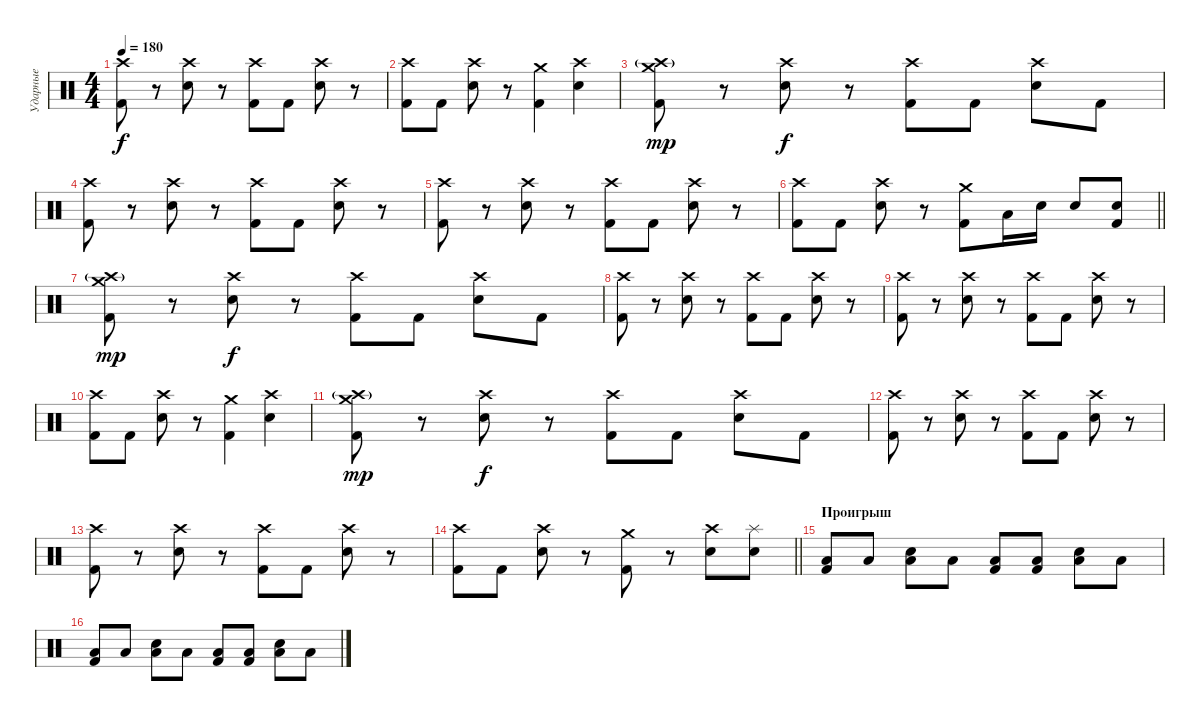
\track ("Ударные" "Ударные") {instrument percussion}
\staff {score}
\articulation defaults
\ts (4 4)
\tempo 180
\clef neutral
\ks c
("Crash high (hit)" "Kick (hit) 2").8{dy f} r.8 ("Crash high (hit)" "Snare (hit) 2").8 r.8 ("Crash high (hit)" "Kick (hit) 2").8 "Kick (hit) 2".8 ("Crash high (hit)" "Snare (hit) 2").8 r.8 |
("Crash high (hit)" "Kick (hit) 2").8 "Kick (hit) 2".8 ("Crash high (hit)" "Snare (hit) 2").8 r.8 ("Crash medium (hit)" "Kick (hit) 2").4 ("Crash high (hit)" "Snare (hit) 2").4 |
("Crash medium (hit)" "Crash high (hit)"{g} "Kick (hit) 2").8{dy mp} r.8 ("Crash high (hit)" "Snare (hit) 2").8{dy f} r.8 ("Crash high (hit)" "Kick (hit) 2").8 "Kick (hit) 2".8 ("Crash high (hit)" "Snare (hit) 2").8 "Kick (hit) 2".8 |
("Crash high (hit)" "Kick (hit) 2").8 r.8 ("Crash high (hit)" "Snare (hit) 2").8 r.8 ("Crash high (hit)" "Kick (hit) 2").8 "Kick (hit) 2".8 ("Crash high (hit)" "Snare (hit) 2").8 r.8 |
("Crash high (hit)" "Kick (hit) 2").8 r.8 ("Crash high (hit)" "Snare (hit) 2").8 r.8 ("Crash high (hit)" "Kick (hit) 2").8 "Kick (hit) 2".8 ("Crash high (hit)" "Snare (hit) 2").8 r.8 |
\barLineRight lightlight
("Crash high (hit)" "Kick (hit) 2").8 "Kick (hit) 2".8 ("Crash high (hit)" "Snare (hit) 2").8 r.8 ("Crash medium (hit)" "Kick (hit) 2").8 "Low Tom (hit)".16 "Snare (hit) 2".16 "Snare (hit) 2".8 ("Snare (hit) 2" "Kick (hit) 2").8 |
("Crash medium (hit)" "Crash high (hit)"{g} "Kick (hit) 2").8{dy mp} r.8 ("Crash high (hit)" "Snare (hit) 2").8{dy f} r.8 ("Crash high (hit)" "Kick (hit) 2").8 "Kick (hit) 2".8 ("Crash high (hit)" "Snare (hit) 2").8 "Kick (hit) 2".8 |
("Crash high (hit)" "Kick (hit) 2").8 r.8 ("Crash high (hit)" "Snare (hit) 2").8 r.8 ("Crash high (hit)" "Kick (hit) 2").8 "Kick (hit) 2".8 ("Crash high (hit)" "Snare (hit) 2").8 r.8 |
("Crash high (hit)" "Kick (hit) 2").8 r.8 ("Crash high (hit)" "Snare (hit) 2").8 r.8 ("Crash high (hit)" "Kick (hit) 2").8 "Kick (hit) 2".8 ("Crash high (hit)" "Snare (hit) 2").8 r.8 |
("Crash high (hit)" "Kick (hit) 2").8 "Kick (hit) 2".8 ("Crash high (hit)" "Snare (hit) 2").8 r.8 ("Crash medium (hit)" "Kick (hit) 2").4 ("Crash high (hit)" "Snare (hit) 2").4 |
("Crash medium (hit)" "Crash high (hit)"{g} "Kick (hit) 2").8{dy mp} r.8 ("Crash high (hit)" "Snare (hit) 2").8{dy f} r.8 ("Crash high (hit)" "Kick (hit) 2").8 "Kick (hit) 2".8 ("Crash high (hit)" "Snare (hit) 2").8 "Kick (hit) 2".8 |
("Crash high (hit)" "Kick (hit) 2").8 r.8 ("Crash high (hit)" "Snare (hit) 2").8 r.8 ("Crash high (hit)" "Kick (hit) 2").8 "Kick (hit) 2".8 ("Crash high (hit)" "Snare (hit) 2").8 r.8 |
("Crash high (hit)" "Kick (hit) 2").8 r.8 ("Crash high (hit)" "Snare (hit) 2").8 r.8 ("Crash high (hit)" "Kick (hit) 2").8 "Kick (hit) 2".8 ("Crash high (hit)" "Snare (hit) 2").8 r.8 |
\barLineRight lightlight
("Crash high (hit)" "Kick (hit) 2").8 "Kick (hit) 2".8 ("Crash high (hit)" "Snare (hit) 2").8 r.8 ("Crash medium (hit)" "Kick (hit) 2").8 r.8 ("Crash high (hit)" "Snare (hit) 2").8 ("Splash (hit)" "Snare (hit) 2").8 |
\section ("" "Проигрыш")
("Low Floor Tom (hit)" "Kick (hit) 2").8 "Low Floor Tom (hit)".8 ("Low Floor Tom (hit)" "Snare (hit) 2").8 "Low Floor Tom (hit)".8 ("Low Floor Tom (hit)" "Kick (hit) 2").8 ("Low Floor Tom (hit)" "Kick (hit) 2").8 ("Low Floor Tom (hit)" "Snare (hit) 2").8 "Low Floor Tom (hit)".8 |
("Low Floor Tom (hit)" "Kick (hit) 2").8 "Low Floor Tom (hit)".8 ("Low Floor Tom (hit)" "Snare (hit) 2").8 "Low Floor Tom (hit)".8 ("Low Floor Tom (hit)" "Kick (hit) 2").8 ("Low Floor Tom (hit)" "Kick (hit) 2").8 ("Low Floor Tom (hit)" "Snare (hit) 2").8 "Low Floor Tom (hit)".8
